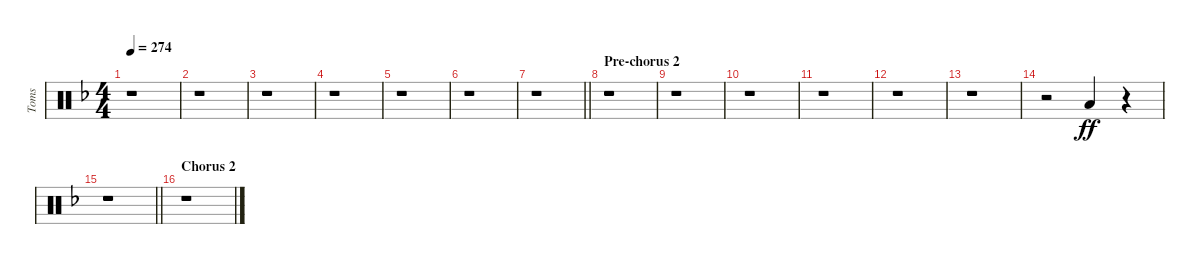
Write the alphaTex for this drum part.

\track ("Toms" "Toms") {instrument percussion}
\staff {score}
\articulation defaults
\ts (4 4)
\tempo 274
\clef neutral
\ks dminor
r.1{dy ff} |
r.1 |
r.1 |
r.1 |
r.1 |
r.1 |
\barLineRight lightlight
r.1 |
\section ("" "Pre-chorus 2")
r.1 |
r.1 |
r.1 |
r.1 |
r.1 |
r.1 |
r.2 "Low Tom (hit)".4{balance 8} r.4 |
\barLineRight lightlight
r.1 |
\section ("" "Chorus 2")
r.1
